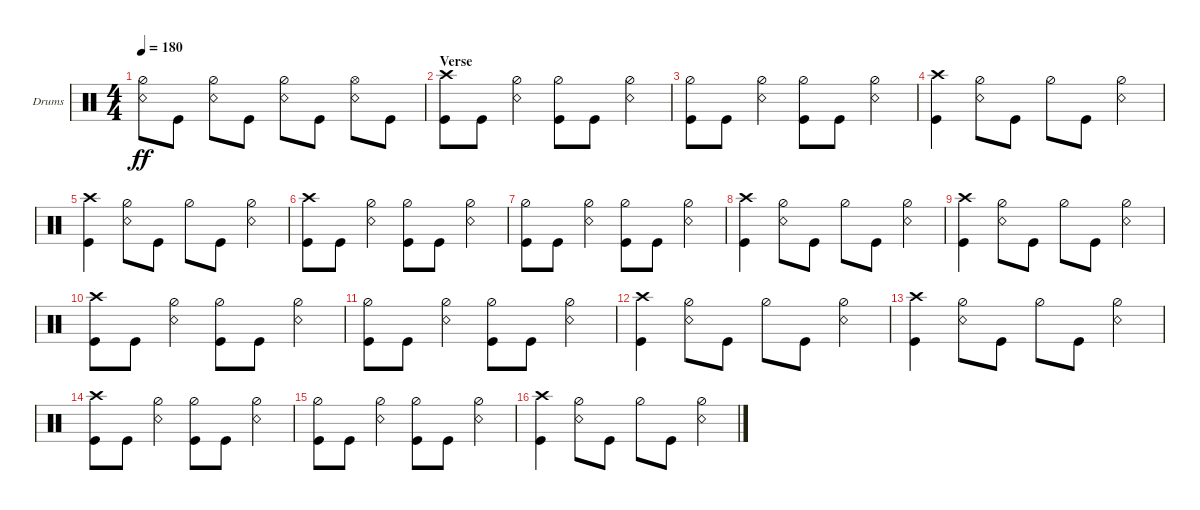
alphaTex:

\defaultSystemsLayout 4
\bracketExtendMode groupsimilarinstruments
\firstSystemTrackNameOrientation horizontal
\otherSystemsTrackNameOrientation horizontal
\track ("Drumkit" "Drums") {instrument percussion}
\staff {score}
\articulation defaults
\ts (4 4)
\tempo 180
\clef neutral
\ks c
("Snare (rim shot)" "Hi-Hat (half)").8{dy ff} "Kick (hit)".8 ("Snare (rim shot)" "Hi-Hat (half)").8 "Kick (hit)".8 ("Snare (rim shot)" "Hi-Hat (half)").8 "Kick (hit)".8 ("Snare (rim shot)" "Hi-Hat (open)").8 "Kick (hit)".8 |
\section ("" "Verse")
("Kick (hit)" "Crash high (hit)").8 "Kick (hit)".8 ("Hi-Hat (half)" "Snare (rim shot)").4 ("Kick (hit)" "Hi-Hat (half)").8 "Kick (hit)".8 ("Hi-Hat (half)" "Snare (rim shot)").4 |
("Kick (hit)" "Hi-Hat (half)").8 "Kick (hit)".8 ("Hi-Hat (half)" "Snare (rim shot)").4 ("Kick (hit)" "Hi-Hat (half)").8 "Kick (hit)".8 ("Hi-Hat (half)" "Snare (rim shot)").4 |
("Crash high (hit)" "Kick (hit)").4 ("Snare (rim shot)" "Hi-Hat (half)").8 "Kick (hit)".8 "Hi-Hat (half)".8 "Kick (hit)".8 ("Snare (rim shot)" "Hi-Hat (half)").4 |
("Crash high (hit)" "Kick (hit)").4 ("Snare (rim shot)" "Hi-Hat (half)").8 "Kick (hit)".8 "Hi-Hat (half)".8 "Kick (hit)".8 ("Snare (rim shot)" "Hi-Hat (half)").4 |
("Kick (hit)" "Crash high (hit)").8 "Kick (hit)".8 ("Hi-Hat (half)" "Snare (rim shot)").4 ("Kick (hit)" "Hi-Hat (half)").8 "Kick (hit)".8 ("Hi-Hat (half)" "Snare (rim shot)").4 |
("Kick (hit)" "Hi-Hat (half)").8 "Kick (hit)".8 ("Hi-Hat (half)" "Snare (rim shot)").4 ("Kick (hit)" "Hi-Hat (half)").8 "Kick (hit)".8 ("Hi-Hat (half)" "Snare (rim shot)").4 |
("Crash high (hit)" "Kick (hit)").4 ("Snare (rim shot)" "Hi-Hat (half)").8 "Kick (hit)".8 "Hi-Hat (half)".8 "Kick (hit)".8 ("Snare (rim shot)" "Hi-Hat (half)").4 |
("Crash high (hit)" "Kick (hit)").4 ("Snare (rim shot)" "Hi-Hat (half)").8 "Kick (hit)".8 "Hi-Hat (half)".8 "Kick (hit)".8 ("Snare (rim shot)" "Hi-Hat (half)").4 |
("Kick (hit)" "Crash high (hit)").8 "Kick (hit)".8 ("Hi-Hat (half)" "Snare (rim shot)").4 ("Kick (hit)" "Hi-Hat (half)").8 "Kick (hit)".8 ("Hi-Hat (half)" "Snare (rim shot)").4 |
("Kick (hit)" "Hi-Hat (half)").8 "Kick (hit)".8 ("Hi-Hat (half)" "Snare (rim shot)").4 ("Kick (hit)" "Hi-Hat (half)").8 "Kick (hit)".8 ("Hi-Hat (half)" "Snare (rim shot)").4 |
("Crash high (hit)" "Kick (hit)").4 ("Snare (rim shot)" "Hi-Hat (half)").8 "Kick (hit)".8 "Hi-Hat (half)".8 "Kick (hit)".8 ("Snare (rim shot)" "Hi-Hat (half)").4 |
("Crash high (hit)" "Kick (hit)").4 ("Snare (rim shot)" "Hi-Hat (half)").8 "Kick (hit)".8 "Hi-Hat (half)".8 "Kick (hit)".8 ("Snare (rim shot)" "Hi-Hat (half)").4 |
("Kick (hit)" "Crash high (hit)").8 "Kick (hit)".8 ("Hi-Hat (half)" "Snare (rim shot)").4 ("Kick (hit)" "Hi-Hat (half)").8 "Kick (hit)".8 ("Hi-Hat (half)" "Snare (rim shot)").4 |
("Kick (hit)" "Hi-Hat (half)").8 "Kick (hit)".8 ("Hi-Hat (half)" "Snare (rim shot)").4 ("Kick (hit)" "Hi-Hat (half)").8 "Kick (hit)".8 ("Hi-Hat (half)" "Snare (rim shot)").4 |
("Crash high (hit)" "Kick (hit)").4 ("Snare (rim shot)" "Hi-Hat (half)").8 "Kick (hit)".8 "Hi-Hat (half)".8 "Kick (hit)".8 ("Snare (rim shot)" "Hi-Hat (half)").4
